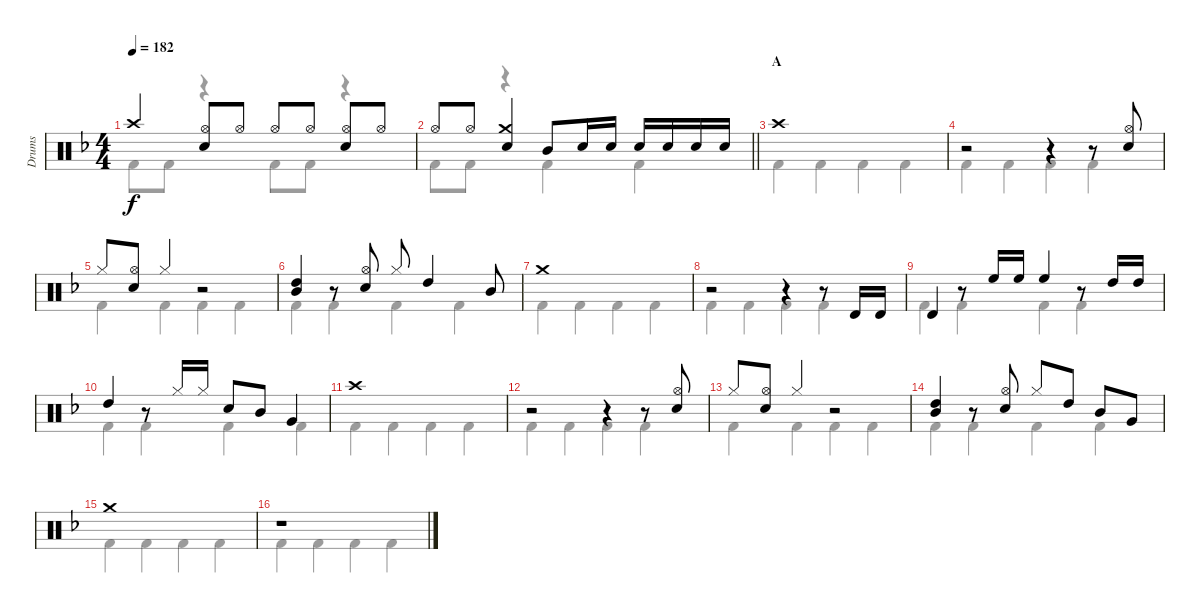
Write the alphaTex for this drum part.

\track ("Drums" "Drums") {instrument percussion}
\staff {score}
\articulation defaults
\voice
\ts (4 4)
\tempo 182
\clef neutral
\ks f "Crash high (hit)".4{dy f}
("Hi-Hat (open)" "Snare (hit) 2").8 "Hi-Hat (open)".8 "Hi-Hat (open)".8 "Hi-Hat (open)".8 ("Hi-Hat (open)" "Snare (hit) 2").8 "Hi-Hat (open)".8 |
\barLineRight lightlight "Hi-Hat (open)".8 "Hi-Hat (open)".8
("Crash medium (hit)" "Snare (hit) 2").4 "Mid Tom (hit)".8 "Snare (hit) 2".16 "Snare (hit) 2".16 "Snare (hit) 2".16 "Snare (hit) 2".16 "Snare (hit) 2".16 "Snare (hit) 2".16 |
\section ("" "A")
"Crash high (hit)".1 |
r.2 r.4 r.8 ("Hi-Hat (open)" "Snare (hit) 2").8 |
"Hi-Hat (closed)".8 ("Hi-Hat (open)" "Snare (hit) 2").8 "Hi-Hat (closed)".4 r.2 |
("High Tom (hit)" "Mid Tom (hit)").4 r.8 ("Hi-Hat (open)" "Snare (hit) 2").8 "Hi-Hat (closed)".8 "High Tom (hit)".4 "Mid Tom (hit)".8 |
"Crash medium (hit)".1 |
r.2 r.4 r.8 "Timbale high (hit)".16 "Timbale high (hit)".16 |
"Timbale high (hit)".4 r.8 "High Floor Tom (hit)".16 "High Floor Tom (hit)".16 "High Floor Tom (hit)".4 r.8 "High Tom (hit)".16 "High Tom (hit)".16 |
"High Tom (hit)".4 r.8 "Hi-Hat (closed)".16 "Hi-Hat (closed)".16 "Snare (hit) 2".8 "Mid Tom (hit)".8 "Very Low Tom (hit)".4 |
"Crash high (hit)".1 |
r.2 r.4 r.8 ("Hi-Hat (open)" "Snare (hit) 2").8 |
"Hi-Hat (closed)".8 ("Hi-Hat (open)" "Snare (hit) 2").8 "Hi-Hat (closed)".4 r.2 |
("High Tom (hit)" "Mid Tom (hit)").4 r.8 ("Hi-Hat (open)" "Snare (hit) 2").8 "Hi-Hat (closed)".8 "High Tom (hit)".8 "Mid Tom (hit)".8 "Very Low Tom (hit)".8 |
"Crash medium (hit)".1 |
r.1
\voice
\clef neutral
\ottava regular
\simile none
\ks f "Kick (hit) 2".8{dy f} "Kick (hit) 2".8
r.4 "Kick (hit) 2".8 "Kick (hit) 2".8 r.4 |
\barLineRight lightlight "Kick (hit) 2".8 "Kick (hit) 2".8
r.4 "Kick (hit) 2".4 "Kick (hit) 2".4 |
"Kick (hit) 2".4 "Kick (hit) 2".4 "Kick (hit) 2".4 "Kick (hit) 2".4 |
"Kick (hit) 2".4 "Kick (hit) 2".4 "Kick (hit) 2".4 "Kick (hit) 2".4 |
"Kick (hit) 2".4 "Kick (hit) 2".4 "Kick (hit) 2".4 "Kick (hit) 2".4 |
"Kick (hit) 2".4 "Kick (hit) 2".4 "Kick (hit) 2".4 "Kick (hit) 2".4 |
"Kick (hit) 2".4 "Kick (hit) 2".4 "Kick (hit) 2".4 "Kick (hit) 2".4 |
"Kick (hit) 2".4 "Kick (hit) 2".4 "Kick (hit) 2".4 "Kick (hit) 2".4 |
"Kick (hit) 2".4 "Kick (hit) 2".4 "Kick (hit) 2".4 "Kick (hit) 2".4 |
"Kick (hit) 2".4 "Kick (hit) 2".4 "Kick (hit) 2".4 "Kick (hit) 2".4 |
"Kick (hit) 2".4 "Kick (hit) 2".4 "Kick (hit) 2".4 "Kick (hit) 2".4 |
"Kick (hit) 2".4 "Kick (hit) 2".4 "Kick (hit) 2".4 "Kick (hit) 2".4 |
"Kick (hit) 2".4 "Kick (hit) 2".4 "Kick (hit) 2".4 "Kick (hit) 2".4 |
"Kick (hit) 2".4 "Kick (hit) 2".4 "Kick (hit) 2".4 "Kick (hit) 2".4 |
"Kick (hit) 2".4 "Kick (hit) 2".4 "Kick (hit) 2".4 "Kick (hit) 2".4 |
"Kick (hit) 2".4 "Kick (hit) 2".4 "Kick (hit) 2".4 "Kick (hit) 2".4
